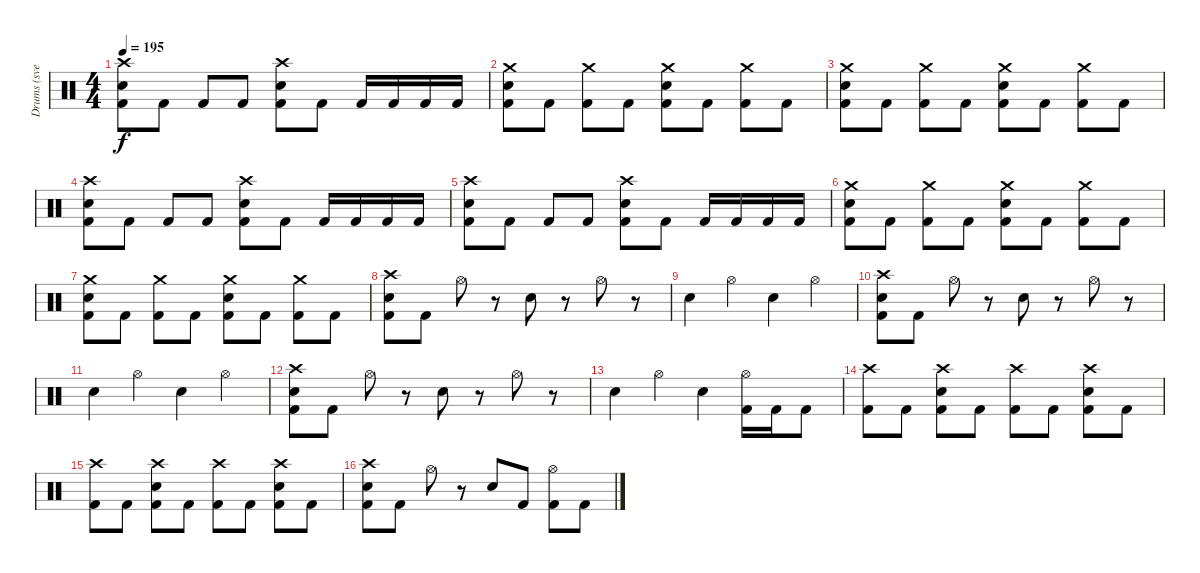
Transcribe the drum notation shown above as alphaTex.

\track ("Drums (svelle)" "Drums (sve") {instrument percussion}
\staff {score}
\articulation defaults
\ts (4 4)
\tempo 195
\clef neutral
\ks c
("Crash high (hit)" "Electric Snare (hit)" "Kick (hit) 2").8{dy f} "Kick (hit) 2".8 "Kick (hit) 2".8 "Kick (hit) 2".8 ("Crash high (hit)" "Electric Snare (hit)" "Kick (hit) 2").8 "Kick (hit) 2".8 "Kick (hit) 2".16 "Kick (hit) 2".16 "Kick (hit) 2".16 "Kick (hit) 2".16 |
("Crash medium (hit)" "Electric Snare (hit)" "Kick (hit) 2").8 "Kick (hit) 2".8 ("Crash medium (hit)" "Kick (hit) 2").8 "Kick (hit) 2".8 ("Crash medium (hit)" "Electric Snare (hit)" "Kick (hit) 2").8 "Kick (hit) 2".8 ("Crash medium (hit)" "Kick (hit) 2").8 "Kick (hit) 2".8 |
("Crash medium (hit)" "Electric Snare (hit)" "Kick (hit) 2").8 "Kick (hit) 2".8 ("Crash medium (hit)" "Kick (hit) 2").8 "Kick (hit) 2".8 ("Crash medium (hit)" "Electric Snare (hit)" "Kick (hit) 2").8 "Kick (hit) 2".8 ("Crash medium (hit)" "Kick (hit) 2").8 "Kick (hit) 2".8 |
("Crash high (hit)" "Electric Snare (hit)" "Kick (hit) 2").8 "Kick (hit) 2".8 "Kick (hit) 2".8 "Kick (hit) 2".8 ("Crash high (hit)" "Electric Snare (hit)" "Kick (hit) 2").8 "Kick (hit) 2".8 "Kick (hit) 2".16 "Kick (hit) 2".16 "Kick (hit) 2".16 "Kick (hit) 2".16 |
("Crash high (hit)" "Electric Snare (hit)" "Kick (hit) 2").8 "Kick (hit) 2".8 "Kick (hit) 2".8 "Kick (hit) 2".8 ("Crash high (hit)" "Electric Snare (hit)" "Kick (hit) 2").8 "Kick (hit) 2".8 "Kick (hit) 2".16 "Kick (hit) 2".16 "Kick (hit) 2".16 "Kick (hit) 2".16 |
("Crash medium (hit)" "Electric Snare (hit)" "Kick (hit) 2").8 "Kick (hit) 2".8 ("Crash medium (hit)" "Kick (hit) 2").8 "Kick (hit) 2".8 ("Crash medium (hit)" "Electric Snare (hit)" "Kick (hit) 2").8 "Kick (hit) 2".8 ("Crash medium (hit)" "Kick (hit) 2").8 "Kick (hit) 2".8 |
("Crash medium (hit)" "Electric Snare (hit)" "Kick (hit) 2").8 "Kick (hit) 2".8 ("Crash medium (hit)" "Kick (hit) 2").8 "Kick (hit) 2".8 ("Crash medium (hit)" "Electric Snare (hit)" "Kick (hit) 2").8 "Kick (hit) 2".8 ("Crash medium (hit)" "Kick (hit) 2").8 "Kick (hit) 2".8 |
("Crash high (hit)" "Electric Snare (hit)" "Kick (hit) 2").8 "Kick (hit) 2".8 "Hi-Hat (open)".8 r.8 "Electric Snare (hit)".8 r.8 "Hi-Hat (open)".8 r.8 |
"Electric Snare (hit)".4 "Hi-Hat (open)".4 "Electric Snare (hit)".4 "Hi-Hat (open)".4 |
("Crash high (hit)" "Electric Snare (hit)" "Kick (hit) 2").8 "Kick (hit) 2".8 "Hi-Hat (open)".8 r.8 "Electric Snare (hit)".8 r.8 "Hi-Hat (open)".8 r.8 |
"Electric Snare (hit)".4 "Hi-Hat (open)".4 "Electric Snare (hit)".4 "Hi-Hat (open)".4 |
("Crash high (hit)" "Electric Snare (hit)" "Kick (hit) 2").8 "Kick (hit) 2".8 "Hi-Hat (open)".8 r.8 "Electric Snare (hit)".8 r.8 "Hi-Hat (open)".8 r.8 |
"Electric Snare (hit)".4 "Hi-Hat (open)".4 "Electric Snare (hit)".4 ("Hi-Hat (open)" "Kick (hit) 2").16 "Kick (hit) 2".16 "Kick (hit) 2".8 |
("Crash high (hit)" "Kick (hit) 2").8 "Kick (hit) 2".8 ("Crash high (hit)" "Electric Snare (hit)" "Kick (hit) 2").8 "Kick (hit) 2".8 ("Crash high (hit)" "Kick (hit) 2").8 "Kick (hit) 2".8 ("Crash high (hit)" "Electric Snare (hit)" "Kick (hit) 2").8 "Kick (hit) 2".8 |
("Crash high (hit)" "Kick (hit) 2").8 "Kick (hit) 2".8 ("Crash high (hit)" "Electric Snare (hit)" "Kick (hit) 2").8 "Kick (hit) 2".8 ("Crash high (hit)" "Kick (hit) 2").8 "Kick (hit) 2".8 ("Crash high (hit)" "Electric Snare (hit)" "Kick (hit) 2").8 "Kick (hit) 2".8 |
("Crash high (hit)" "Electric Snare (hit)" "Kick (hit) 2").8 "Kick (hit) 2".8 "Hi-Hat (open)".8 r.8 "Electric Snare (hit)".8 "Kick (hit) 2".8 ("Hi-Hat (open)" "Kick (hit) 2").8 "Kick (hit) 2".8
